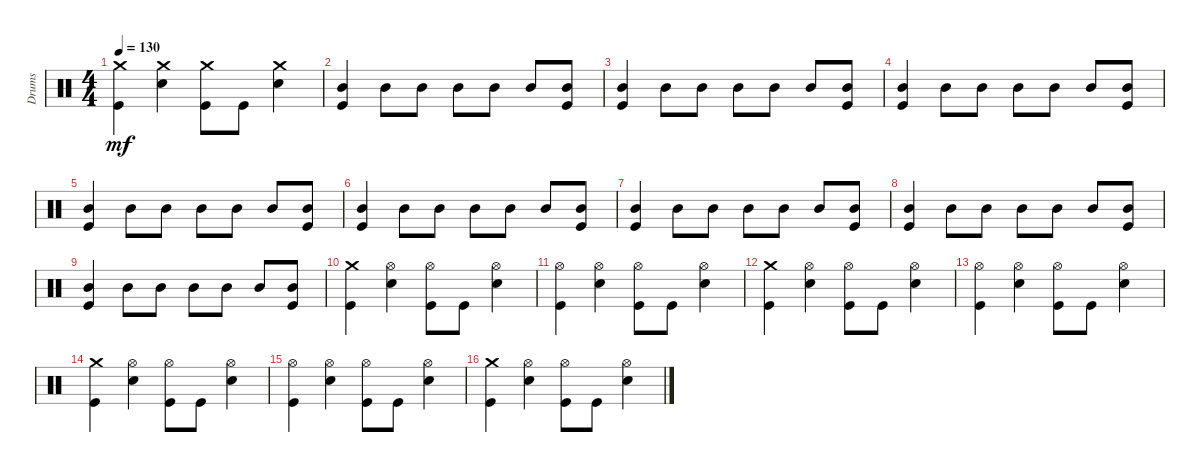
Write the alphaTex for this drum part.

\defaultSystemsLayout 4
\track ("Drumkit" "Drums") {instrument percussion}
\staff {score}
\articulation defaults
\ts (4 4)
\tempo 130
\clef neutral
\ks c
("Kick (hit)" "Crash medium (hit)").4{dy mf} ("Snare (hit) 2" "Crash medium (hit)").4 ("Kick (hit)" "Crash medium (hit)").8 "Kick (hit)".8 ("Snare (hit) 2" "Crash medium (hit)").4 |
("Mid Tom (hit)" "Kick (hit)").4 "Mid Tom (hit)".8 "Mid Tom (hit)".8 "Mid Tom (hit)".8 "Mid Tom (hit)".8 "Mid Tom (hit)".8 ("Mid Tom (hit)" "Kick (hit)").8 |
("Mid Tom (hit)" "Kick (hit)").4 "Mid Tom (hit)".8 "Mid Tom (hit)".8 "Mid Tom (hit)".8 "Mid Tom (hit)".8 "Mid Tom (hit)".8 ("Mid Tom (hit)" "Kick (hit)").8 |
("Mid Tom (hit)" "Kick (hit)").4 "Mid Tom (hit)".8 "Mid Tom (hit)".8 "Mid Tom (hit)".8 "Mid Tom (hit)".8 "Mid Tom (hit)".8 ("Mid Tom (hit)" "Kick (hit)").8 |
("Mid Tom (hit)" "Kick (hit)").4 "Mid Tom (hit)".8 "Mid Tom (hit)".8 "Mid Tom (hit)".8 "Mid Tom (hit)".8 "Mid Tom (hit)".8 ("Mid Tom (hit)" "Kick (hit)").8 |
("Mid Tom (hit)" "Kick (hit)").4 "Mid Tom (hit)".8 "Mid Tom (hit)".8 "Mid Tom (hit)".8 "Mid Tom (hit)".8 "Mid Tom (hit)".8 ("Mid Tom (hit)" "Kick (hit)").8 |
("Mid Tom (hit)" "Kick (hit)").4 "Mid Tom (hit)".8 "Mid Tom (hit)".8 "Mid Tom (hit)".8 "Mid Tom (hit)".8 "Mid Tom (hit)".8 ("Mid Tom (hit)" "Kick (hit)").8 |
("Mid Tom (hit)" "Kick (hit)").4 "Mid Tom (hit)".8 "Mid Tom (hit)".8 "Mid Tom (hit)".8 "Mid Tom (hit)".8 "Mid Tom (hit)".8 ("Mid Tom (hit)" "Kick (hit)").8 |
("Mid Tom (hit)" "Kick (hit)").4 "Mid Tom (hit)".8 "Mid Tom (hit)".8 "Mid Tom (hit)".8 "Mid Tom (hit)".8 "Mid Tom (hit)".8 ("Mid Tom (hit)" "Kick (hit)").8 |
("Kick (hit)" "Crash medium (hit)").4 ("Snare (hit) 2" "Hi-Hat (open)").4 ("Kick (hit)" "Hi-Hat (open)").8 "Kick (hit)".8 ("Snare (hit) 2" "Hi-Hat (open)").4 |
("Hi-Hat (open)" "Kick (hit)").4 ("Hi-Hat (open)" "Snare (hit) 2").4 ("Hi-Hat (open)" "Kick (hit)").8 "Kick (hit)".8 ("Hi-Hat (open)" "Snare (hit) 2").4 |
("Kick (hit)" "Crash medium (hit)").4 ("Snare (hit) 2" "Hi-Hat (open)").4 ("Kick (hit)" "Hi-Hat (open)").8 "Kick (hit)".8 ("Snare (hit) 2" "Hi-Hat (open)").4 |
("Hi-Hat (open)" "Kick (hit)").4 ("Hi-Hat (open)" "Snare (hit) 2").4 ("Hi-Hat (open)" "Kick (hit)").8 "Kick (hit)".8 ("Hi-Hat (open)" "Snare (hit) 2").4 |
("Kick (hit)" "Crash medium (hit)").4 ("Snare (hit) 2" "Hi-Hat (open)").4 ("Kick (hit)" "Hi-Hat (open)").8 "Kick (hit)".8 ("Snare (hit) 2" "Hi-Hat (open)").4 |
("Hi-Hat (open)" "Kick (hit)").4 ("Hi-Hat (open)" "Snare (hit) 2").4 ("Hi-Hat (open)" "Kick (hit)").8 "Kick (hit)".8 ("Hi-Hat (open)" "Snare (hit) 2").4 |
("Kick (hit)" "Crash medium (hit)").4 ("Snare (hit) 2" "Hi-Hat (open)").4 ("Kick (hit)" "Hi-Hat (open)").8 "Kick (hit)".8 ("Snare (hit) 2" "Hi-Hat (open)").4
